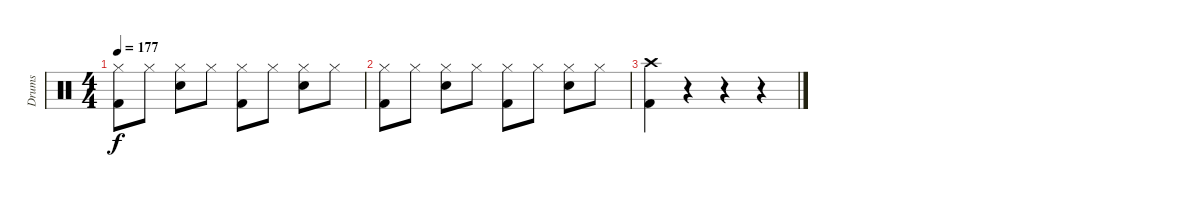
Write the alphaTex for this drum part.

\track ("Drums" "Drums") {instrument percussion}
\staff {score}
\articulation defaults
\ts (4 4)
\tempo 177
\clef neutral
\ks c
("Hi-Hat (closed)" "Kick (hit) 2").8{dy f} "Hi-Hat (closed)".8 ("Hi-Hat (closed)" "Snare (hit) 2").8 "Hi-Hat (closed)".8 ("Hi-Hat (closed)" "Kick (hit) 2").8 "Hi-Hat (closed)".8 ("Hi-Hat (closed)" "Snare (hit) 2").8 "Hi-Hat (closed)".8 |
("Hi-Hat (closed)" "Kick (hit) 2").8 "Hi-Hat (closed)".8 ("Hi-Hat (closed)" "Snare (hit) 2").8 "Hi-Hat (closed)".8 ("Hi-Hat (closed)" "Kick (hit) 2").8 "Hi-Hat (closed)".8 ("Hi-Hat (closed)" "Snare (hit) 2").8 "Hi-Hat (closed)".8 |
("Crash high (hit)" "Kick (hit) 2").4 r.4 r.4 r.4
